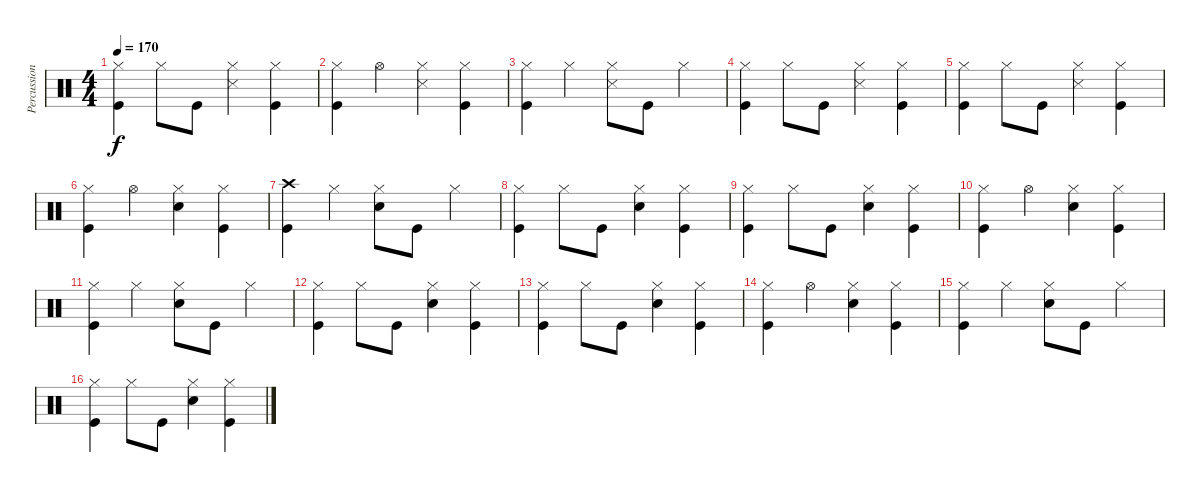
\track ("Percussion" "Percussion") {instrument percussion}
\staff {score}
\articulation defaults
\ts (4 4)
\tempo 170
\clef neutral
\ks c
("Hi-Hat (closed)" "Kick (hit)").4{dy f} "Hi-Hat (closed)".8 "Kick (hit)".8 ("Hi-Hat (closed)" "Snare (side stick) 3").4 ("Hi-Hat (closed)" "Kick (hit)").4 |
("Hi-Hat (closed)" "Kick (hit)").4 "Hi-Hat (open)".4 ("Hi-Hat (closed)" "Snare (side stick) 3").4 ("Hi-Hat (closed)" "Kick (hit)").4 |
("Hi-Hat (closed)" "Kick (hit)").4 "Hi-Hat (closed)".4 ("Hi-Hat (closed)" "Snare (side stick) 3").8 "Kick (hit)".8 "Hi-Hat (closed)".4 |
("Hi-Hat (closed)" "Kick (hit)").4 "Hi-Hat (closed)".8 "Kick (hit)".8 ("Hi-Hat (closed)" "Snare (side stick) 3").4 ("Hi-Hat (closed)" "Kick (hit)").4 |
("Hi-Hat (closed)" "Kick (hit)").4 "Hi-Hat (closed)".8 "Kick (hit)".8 ("Hi-Hat (closed)" "Snare (side stick) 3").4 ("Hi-Hat (closed)" "Kick (hit)").4 |
("Hi-Hat (closed)" "Kick (hit)").4 "Hi-Hat (open)".4 ("Hi-Hat (closed)" "Electric Snare (hit)").4 ("Hi-Hat (closed)" "Kick (hit)").4 |
("Crash high (hit)" "Kick (hit)").4 "Hi-Hat (closed)".4 ("Hi-Hat (closed)" "Electric Snare (hit)").8 "Kick (hit)".8 "Hi-Hat (closed)".4 |
("Hi-Hat (closed)" "Kick (hit)").4 "Hi-Hat (closed)".8 "Kick (hit)".8 ("Hi-Hat (closed)" "Electric Snare (hit)").4 ("Hi-Hat (closed)" "Kick (hit)").4 |
("Hi-Hat (closed)" "Kick (hit)").4 "Hi-Hat (closed)".8 "Kick (hit)".8 ("Hi-Hat (closed)" "Electric Snare (hit)").4 ("Hi-Hat (closed)" "Kick (hit)").4 |
("Hi-Hat (closed)" "Kick (hit)").4 "Hi-Hat (open)".4 ("Hi-Hat (closed)" "Electric Snare (hit)").4 ("Hi-Hat (closed)" "Kick (hit)").4 |
("Hi-Hat (closed)" "Kick (hit)").4 "Hi-Hat (closed)".4 ("Hi-Hat (closed)" "Electric Snare (hit)").8 "Kick (hit)".8 "Hi-Hat (closed)".4 |
("Hi-Hat (closed)" "Kick (hit)").4 "Hi-Hat (closed)".8 "Kick (hit)".8 ("Hi-Hat (closed)" "Electric Snare (hit)").4 ("Hi-Hat (closed)" "Kick (hit)").4 |
("Hi-Hat (closed)" "Kick (hit)").4 "Hi-Hat (closed)".8 "Kick (hit)".8 ("Hi-Hat (closed)" "Electric Snare (hit)").4 ("Hi-Hat (closed)" "Kick (hit)").4 |
("Hi-Hat (closed)" "Kick (hit)").4 "Hi-Hat (open)".4 ("Hi-Hat (closed)" "Electric Snare (hit)").4 ("Hi-Hat (closed)" "Kick (hit)").4 |
("Hi-Hat (closed)" "Kick (hit)").4 "Hi-Hat (closed)".4 ("Hi-Hat (closed)" "Electric Snare (hit)").8 "Kick (hit)".8 "Hi-Hat (closed)".4 |
("Hi-Hat (closed)" "Kick (hit)").4 "Hi-Hat (closed)".8 "Kick (hit)".8 ("Hi-Hat (closed)" "Electric Snare (hit)").4 ("Hi-Hat (closed)" "Kick (hit)").4
